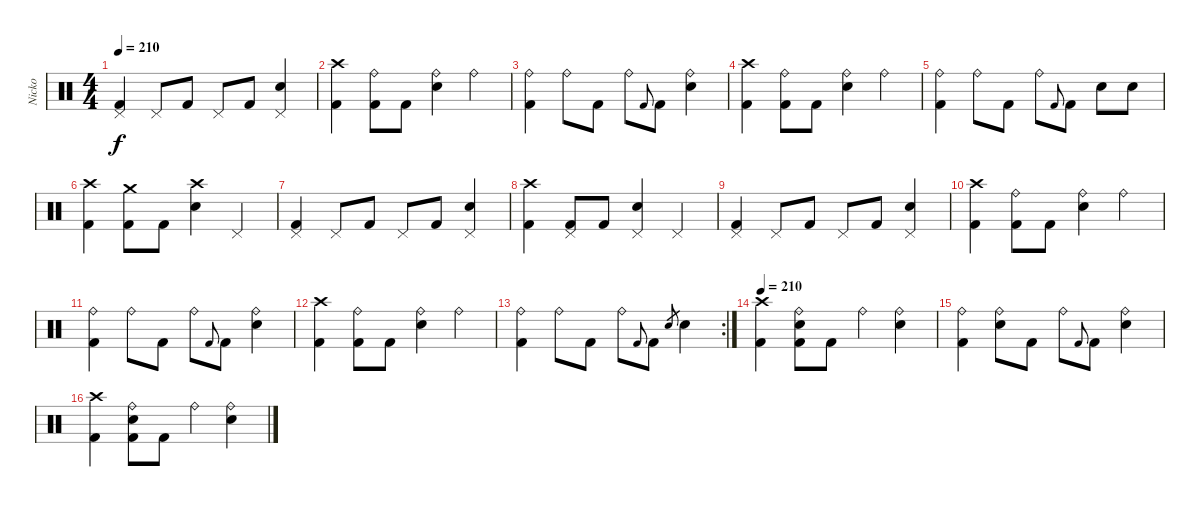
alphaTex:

\track ("Nicko" "Nicko") {instrument percussion}
\staff {score}
\articulation defaults
\ts (4 4)
\tempo 210
\clef neutral
\ks c
("Pedal Hi-Hat (hit)" "Kick (hit) 2").4{dy f} "Pedal Hi-Hat (hit)".8 "Kick (hit) 2".8 "Pedal Hi-Hat (hit)".8 "Kick (hit) 2".8 ("Pedal Hi-Hat (hit)" "Electric Snare (hit)").4 |
("Crash high (hit)" "Kick (hit) 2").4 ("Ride (bell)" "Kick (hit) 2").8 "Kick (hit) 2".8 ("Ride (bell)" "Electric Snare (hit)").4 "Ride (bell)".4 |
("Ride (bell)" "Kick (hit) 2").4 "Ride (bell)".8 "Kick (hit) 2".8 "Ride (bell)".8 "Kick (hit) 2"{h}.8{gr onbeat} "Kick (hit) 2".8 ("Ride (bell)" "Electric Snare (hit)").4 |
("Crash high (hit)" "Kick (hit) 2").4 ("Ride (bell)" "Kick (hit) 2").8 "Kick (hit) 2".8 ("Ride (bell)" "Electric Snare (hit)").4 "Ride (bell)".4 |
("Ride (bell)" "Kick (hit) 2").4 "Ride (bell)".8 "Kick (hit) 2".8 "Ride (bell)".8 "Kick (hit) 2"{h}.8{gr onbeat} "Kick (hit) 2".8 "Electric Snare (hit)".8 "Electric Snare (hit)".8 |
("Crash high (hit)" "Kick (hit) 2").4 ("Crash medium (hit)" "Kick (hit) 2").8 "Kick (hit) 2".8 ("Crash high (hit)" "Electric Snare (hit)").4 "Pedal Hi-Hat (hit)".4 |
("Pedal Hi-Hat (hit)" "Kick (hit) 2").4 "Pedal Hi-Hat (hit)".8 "Kick (hit) 2".8 "Pedal Hi-Hat (hit)".8 "Kick (hit) 2".8 ("Pedal Hi-Hat (hit)" "Electric Snare (hit)").4 |
("Crash high (hit)" "Kick (hit) 2").4 ("Pedal Hi-Hat (hit)" "Kick (hit) 2").8 "Kick (hit) 2".8 ("Pedal Hi-Hat (hit)" "Electric Snare (hit)").4 "Pedal Hi-Hat (hit)".4 |
("Pedal Hi-Hat (hit)" "Kick (hit) 2").4 "Pedal Hi-Hat (hit)".8 "Kick (hit) 2".8 "Pedal Hi-Hat (hit)".8 "Kick (hit) 2".8 ("Pedal Hi-Hat (hit)" "Electric Snare (hit)").4 |
("Crash high (hit)" "Kick (hit) 2").4 ("Ride (bell)" "Kick (hit) 2").8 "Kick (hit) 2".8 ("Ride (bell)" "Electric Snare (hit)").4 "Ride (bell)".4 |
("Ride (bell)" "Kick (hit) 2").4 "Ride (bell)".8 "Kick (hit) 2".8 "Ride (bell)".8 "Kick (hit) 2"{h}.8{gr onbeat} "Kick (hit) 2".8 ("Ride (bell)" "Electric Snare (hit)").4 |
("Crash high (hit)" "Kick (hit) 2").4 ("Ride (bell)" "Kick (hit) 2").8 "Kick (hit) 2".8 ("Ride (bell)" "Electric Snare (hit)").4 "Ride (bell)".4 |
\rc 2
("Ride (bell)" "Kick (hit) 2").4 "Ride (bell)".8 "Kick (hit) 2".8 "Ride (bell)".8 "Kick (hit) 2"{h}.8{gr onbeat} "Kick (hit) 2".8 "Electric Snare (hit)".8{gr} "Electric Snare (hit)".4 |
\tempo 210
("Crash high (hit)" "Kick (hit) 2").4 ("Ride (bell)" "Electric Snare (hit)" "Kick (hit) 2").8 "Kick (hit) 2".8 "Ride (bell)".4 ("Ride (bell)" "Electric Snare (hit)").4 |
("Ride (bell)" "Kick (hit) 2").4 ("Ride (bell)" "Electric Snare (hit)").8 "Kick (hit) 2".8 "Ride (bell)".8 "Kick (hit) 2"{h}.8{gr onbeat} "Kick (hit) 2".8 ("Ride (bell)" "Electric Snare (hit)").4 |
("Crash high (hit)" "Kick (hit) 2").4 ("Ride (bell)" "Electric Snare (hit)" "Kick (hit) 2").8 "Kick (hit) 2".8 "Ride (bell)".4 ("Ride (bell)" "Electric Snare (hit)").4
